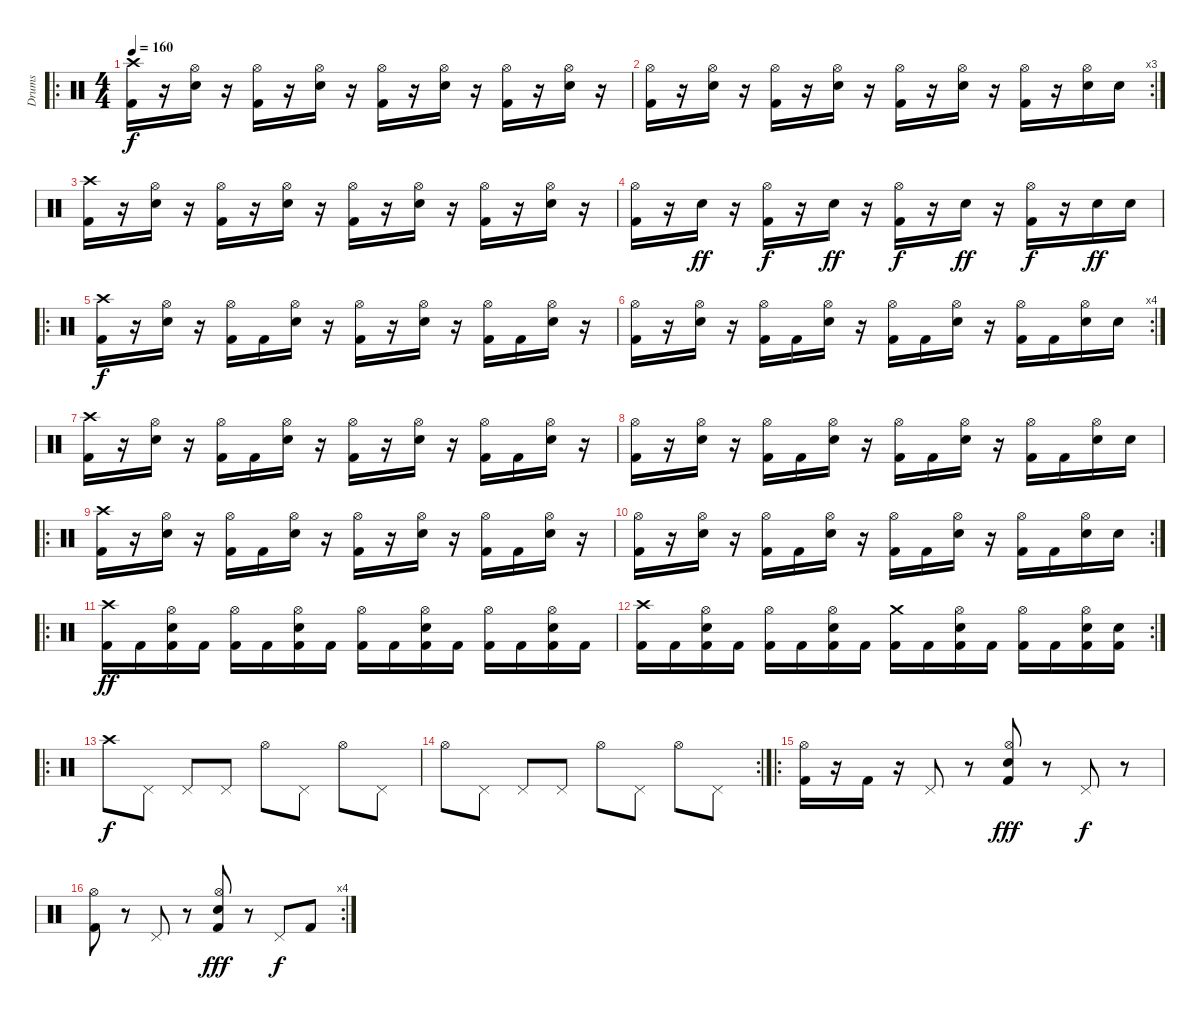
\track ("Drums" "Drums") {instrument percussion}
\staff {score}
\articulation defaults
\ro
\ts (4 4)
\tempo 160
\clef neutral
\ks c
("Crash high (hit)" "Kick (hit) 2").16{dy f} r.16 ("Hi-Hat (open)" "Electric Snare (hit)").16 r.16 ("Hi-Hat (open)" "Kick (hit) 2").16 r.16 ("Hi-Hat (open)" "Electric Snare (hit)").16 r.16 ("Hi-Hat (open)" "Kick (hit) 2").16 r.16 ("Hi-Hat (open)" "Electric Snare (hit)").16 r.16 ("Hi-Hat (open)" "Kick (hit) 2").16 r.16 ("Hi-Hat (open)" "Electric Snare (hit)").16 r.16 |
\rc 3
("Hi-Hat (open)" "Kick (hit) 2").16 r.16 ("Hi-Hat (open)" "Electric Snare (hit)").16 r.16 ("Hi-Hat (open)" "Kick (hit) 2").16 r.16 ("Hi-Hat (open)" "Electric Snare (hit)").16 r.16 ("Hi-Hat (open)" "Kick (hit) 2").16 r.16 ("Hi-Hat (open)" "Electric Snare (hit)").16 r.16 ("Hi-Hat (open)" "Kick (hit) 2").16 r.16 ("Hi-Hat (open)" "Electric Snare (hit)").16 "Electric Snare (hit)".16 |
("Crash high (hit)" "Kick (hit) 2").16 r.16 ("Hi-Hat (open)" "Electric Snare (hit)").16 r.16 ("Hi-Hat (open)" "Kick (hit) 2").16 r.16 ("Hi-Hat (open)" "Electric Snare (hit)").16 r.16 ("Hi-Hat (open)" "Kick (hit) 2").16 r.16 ("Hi-Hat (open)" "Electric Snare (hit)").16 r.16 ("Hi-Hat (open)" "Kick (hit) 2").16 r.16 ("Hi-Hat (open)" "Electric Snare (hit)").16 r.16 |
("Hi-Hat (open)" "Kick (hit) 2").16 r.16 "Electric Snare (hit)".16{dy ff} r.16 ("Hi-Hat (open)" "Kick (hit) 2").16{dy f} r.16 "Electric Snare (hit)".16{dy ff} r.16 ("Hi-Hat (open)" "Kick (hit) 2").16{dy f} r.16 "Electric Snare (hit)".16{dy ff} r.16 ("Hi-Hat (open)" "Kick (hit) 2").16{dy f} r.16 "Electric Snare (hit)".16{dy ff} "Electric Snare (hit)".16 |
\ro
("Crash high (hit)" "Kick (hit) 2").16{dy f} r.16 ("Hi-Hat (open)" "Electric Snare (hit)").16 r.16 ("Hi-Hat (open)" "Kick (hit) 2").16 "Kick (hit) 2".16 ("Hi-Hat (open)" "Electric Snare (hit)").16 r.16 ("Hi-Hat (open)" "Kick (hit) 2").16 r.16 ("Hi-Hat (open)" "Electric Snare (hit)").16 r.16 ("Hi-Hat (open)" "Kick (hit) 2").16 "Kick (hit) 2".16 ("Hi-Hat (open)" "Electric Snare (hit)").16 r.16 |
\rc 4
("Hi-Hat (open)" "Kick (hit) 2").16 r.16 ("Hi-Hat (open)" "Electric Snare (hit)").16 r.16 ("Hi-Hat (open)" "Kick (hit) 2").16 "Kick (hit) 2".16 ("Hi-Hat (open)" "Electric Snare (hit)").16 r.16 ("Hi-Hat (open)" "Kick (hit) 2").16 "Kick (hit) 2".16 ("Hi-Hat (open)" "Electric Snare (hit)").16 r.16 ("Hi-Hat (open)" "Kick (hit) 2").16 "Kick (hit) 2".16 ("Hi-Hat (open)" "Electric Snare (hit)").16 "Electric Snare (hit)".16 |
("Crash high (hit)" "Kick (hit) 2").16 r.16 ("Hi-Hat (open)" "Electric Snare (hit)").16 r.16 ("Hi-Hat (open)" "Kick (hit) 2").16 "Kick (hit) 2".16 ("Hi-Hat (open)" "Electric Snare (hit)").16 r.16 ("Hi-Hat (open)" "Kick (hit) 2").16 r.16 ("Hi-Hat (open)" "Electric Snare (hit)").16 r.16 ("Hi-Hat (open)" "Kick (hit) 2").16 "Kick (hit) 2".16 ("Hi-Hat (open)" "Electric Snare (hit)").16 r.16 |
("Hi-Hat (open)" "Kick (hit) 2").16 r.16 ("Hi-Hat (open)" "Electric Snare (hit)").16 r.16 ("Hi-Hat (open)" "Kick (hit) 2").16 "Kick (hit) 2".16 ("Hi-Hat (open)" "Electric Snare (hit)").16 r.16 ("Hi-Hat (open)" "Kick (hit) 2").16 "Kick (hit) 2".16 ("Hi-Hat (open)" "Electric Snare (hit)").16 r.16 ("Hi-Hat (open)" "Kick (hit) 2").16 "Kick (hit) 2".16 ("Hi-Hat (open)" "Electric Snare (hit)").16 "Electric Snare (hit)".16 |
\ro
("Crash high (hit)" "Kick (hit) 2").16 r.16 ("Hi-Hat (open)" "Electric Snare (hit)").16 r.16 ("Hi-Hat (open)" "Kick (hit) 2").16 "Kick (hit) 2".16 ("Hi-Hat (open)" "Electric Snare (hit)").16 r.16 ("Hi-Hat (open)" "Kick (hit) 2").16 r.16 ("Hi-Hat (open)" "Electric Snare (hit)").16 r.16 ("Hi-Hat (open)" "Kick (hit) 2").16 "Kick (hit) 2".16 ("Hi-Hat (open)" "Electric Snare (hit)").16 r.16 |
\rc 2
("Hi-Hat (open)" "Kick (hit) 2").16 r.16 ("Hi-Hat (open)" "Electric Snare (hit)").16 r.16 ("Hi-Hat (open)" "Kick (hit) 2").16 "Kick (hit) 2".16 ("Hi-Hat (open)" "Electric Snare (hit)").16 r.16 ("Hi-Hat (open)" "Kick (hit) 2").16 "Kick (hit) 2".16 ("Hi-Hat (open)" "Electric Snare (hit)").16 r.16 ("Hi-Hat (open)" "Kick (hit) 2").16 "Kick (hit) 2".16 ("Hi-Hat (open)" "Electric Snare (hit)").16 "Electric Snare (hit)".16 |
\ro
("Crash high (hit)" "Kick (hit) 2").16{dy ff} "Kick (hit) 2".16 ("Hi-Hat (open)" "Electric Snare (hit)" "Kick (hit) 2").16 "Kick (hit) 2".16 ("Hi-Hat (open)" "Kick (hit) 2").16 "Kick (hit) 2".16 ("Hi-Hat (open)" "Electric Snare (hit)" "Kick (hit) 2").16 "Kick (hit) 2".16 ("Hi-Hat (open)" "Kick (hit) 2").16 "Kick (hit) 2".16 ("Hi-Hat (open)" "Electric Snare (hit)" "Kick (hit) 2").16 "Kick (hit) 2".16 ("Hi-Hat (open)" "Kick (hit) 2").16 "Kick (hit) 2".16 ("Hi-Hat (open)" "Electric Snare (hit)" "Kick (hit) 2").16 "Kick (hit) 2".16 |
\rc 2
("Crash high (hit)" "Kick (hit) 2").16 "Kick (hit) 2".16 ("Hi-Hat (open)" "Electric Snare (hit)" "Kick (hit) 2").16 "Kick (hit) 2".16 ("Hi-Hat (open)" "Kick (hit) 2").16 "Kick (hit) 2".16 ("Hi-Hat (open)" "Electric Snare (hit)" "Kick (hit) 2").16 "Kick (hit) 2".16 ("Crash medium (hit)" "Kick (hit) 2").16 "Kick (hit) 2".16 ("Hi-Hat (open)" "Electric Snare (hit)" "Kick (hit) 2").16 "Kick (hit) 2".16 ("Hi-Hat (open)" "Kick (hit) 2").16 "Kick (hit) 2".16 ("Hi-Hat (open)" "Electric Snare (hit)" "Kick (hit) 2").16 ("Electric Snare (hit)" "Kick (hit) 2").16 |
\ro "Crash high (hit)".8{dy f} "Pedal Hi-Hat (hit)".8 "Pedal Hi-Hat (hit)".8 "Pedal Hi-Hat (hit)".8 "Hi-Hat (open)".8 "Pedal Hi-Hat (hit)".8 "Hi-Hat (open)".8 "Pedal Hi-Hat (hit)".8
|
\rc 2 "Hi-Hat (open)".8 "Pedal Hi-Hat (hit)".8 "Pedal Hi-Hat (hit)".8 "Pedal Hi-Hat (hit)".8 "Hi-Hat (open)".8 "Pedal Hi-Hat (hit)".8 "Hi-Hat (open)".8 "Pedal Hi-Hat (hit)".8
|
\ro
("Hi-Hat (open)" "Kick (hit) 2").16 r.16 "Kick (hit) 2".16 r.16 "Pedal Hi-Hat (hit)".8 r.8 ("Hi-Hat (open)" "Electric Snare (hit)" "Kick (hit) 2").8{dy fff} r.8 "Pedal Hi-Hat (hit)".8{dy f} r.8 |
\rc 4
("Hi-Hat (open)" "Kick (hit) 2").8 r.8 "Pedal Hi-Hat (hit)".8 r.8 ("Hi-Hat (open)" "Electric Snare (hit)" "Kick (hit) 2").8{dy fff} r.8 "Pedal Hi-Hat (hit)".8{dy f} "Kick (hit) 2".8
